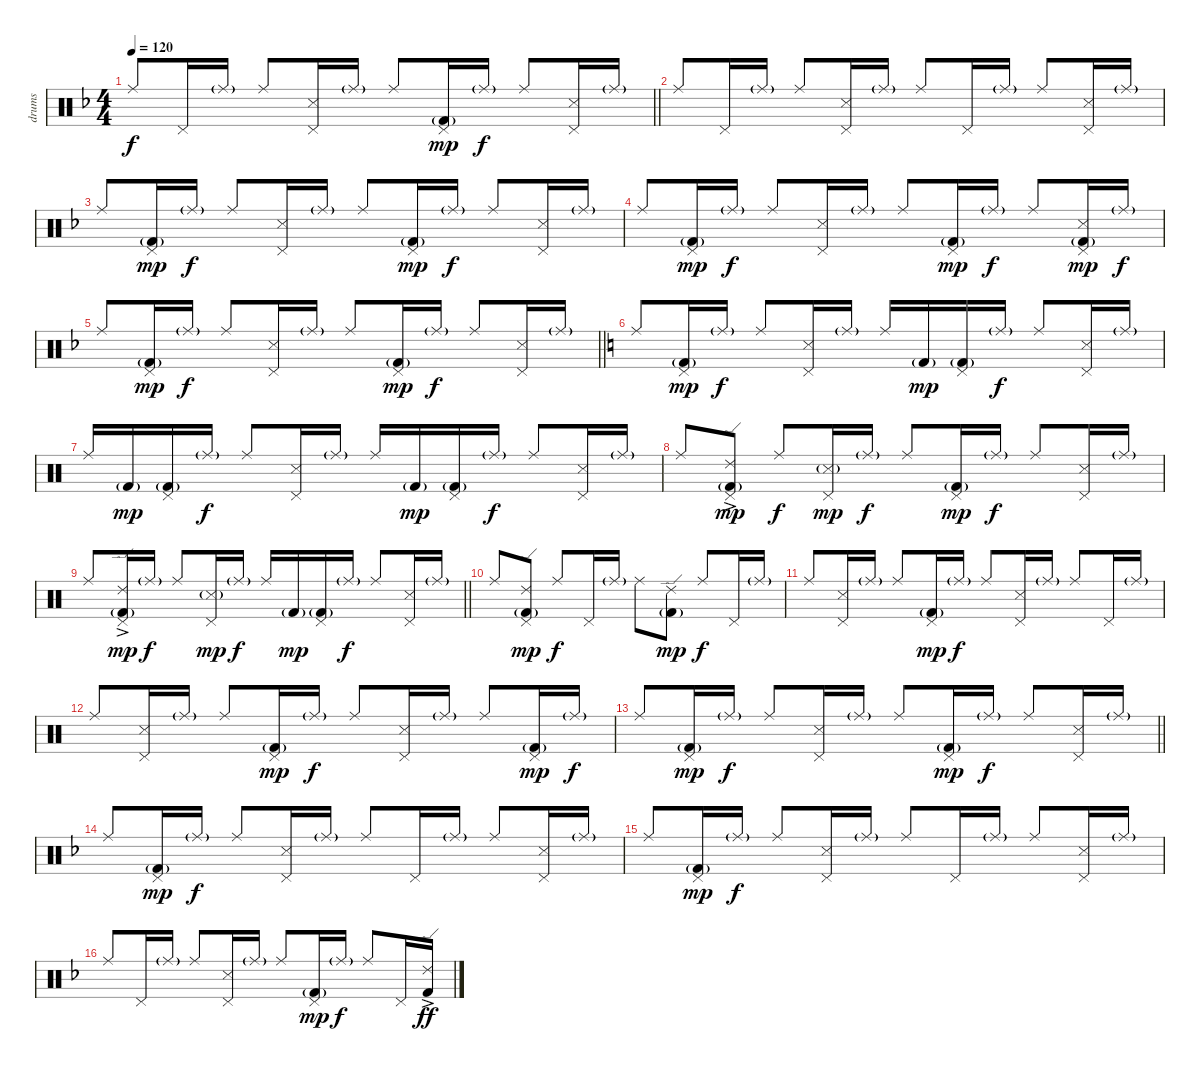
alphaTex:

\track ("drums" "drums") {instrument percussion}
\staff {score}
\articulation defaults
\ts (4 4)
\tempo 120
\clef neutral
\barLineRight lightlight
\ks f "Ride (middle)".8{dy f} "Pedal Hi-Hat (hit)".16 "Ride (middle)"{g}.16 "Ride (middle)".8
("Pedal Hi-Hat (hit)" "Snare (side stick) 3").16 "Ride (middle)"{g}.16 "Ride (middle)".8 ("Pedal Hi-Hat (hit)" "Kick (hit) 2"{g}).16{dy mp} "Ride (middle)"{g}.16{dy f} "Ride (middle)".8 ("Pedal Hi-Hat (hit)" "Snare (side stick) 3").16 "Ride (middle)"{g}.16 |
"Ride (middle)".8 "Pedal Hi-Hat (hit)".16 "Ride (middle)"{g}.16 "Ride (middle)".8 ("Pedal Hi-Hat (hit)" "Snare (side stick) 3").16 "Ride (middle)"{g}.16 "Ride (middle)".8 "Pedal Hi-Hat (hit)".16 "Ride (middle)"{g}.16 "Ride (middle)".8 ("Pedal Hi-Hat (hit)" "Snare (side stick) 3").16 "Ride (middle)"{g}.16 |
"Ride (middle)".8 ("Pedal Hi-Hat (hit)" "Kick (hit) 2"{g}).16{dy mp} "Ride (middle)"{g}.16{dy f} "Ride (middle)".8 ("Pedal Hi-Hat (hit)" "Snare (side stick) 3").16 "Ride (middle)"{g}.16 "Ride (middle)".8 ("Pedal Hi-Hat (hit)" "Kick (hit) 2"{g}).16{dy mp} "Ride (middle)"{g}.16{dy f} "Ride (middle)".8 ("Pedal Hi-Hat (hit)" "Snare (side stick) 3").16 "Ride (middle)"{g}.16 |
"Ride (middle)".8 ("Pedal Hi-Hat (hit)" "Kick (hit) 2"{g}).16{dy mp} "Ride (middle)"{g}.16{dy f} "Ride (middle)".8 ("Pedal Hi-Hat (hit)" "Snare (side stick) 3").16 "Ride (middle)"{g}.16 "Ride (middle)".8 ("Pedal Hi-Hat (hit)" "Kick (hit) 2"{g}).16{dy mp} "Ride (middle)"{g}.16{dy f} "Ride (middle)".8 ("Pedal Hi-Hat (hit)" "Snare (side stick) 3" "Kick (hit) 2"{g}).16{dy mp} "Ride (middle)"{g}.16{dy f} |
\barLineRight lightlight "Ride (middle)".8
("Pedal Hi-Hat (hit)" "Kick (hit) 2"{g}).16{dy mp} "Ride (middle)"{g}.16{dy f} "Ride (middle)".8 ("Pedal Hi-Hat (hit)" "Snare (side stick) 3").16 "Ride (middle)"{g}.16 "Ride (middle)".8 ("Pedal Hi-Hat (hit)" "Kick (hit) 2"{g}).16{dy mp} "Ride (middle)"{g}.16{dy f} "Ride (middle)".8 ("Pedal Hi-Hat (hit)" "Snare (side stick) 3").16 "Ride (middle)"{g}.16 |
\ks c "Ride (middle)".8
("Pedal Hi-Hat (hit)" "Kick (hit) 2"{g}).16{dy mp} "Ride (middle)"{g}.16{dy f} "Ride (middle)".8 ("Pedal Hi-Hat (hit)" "Snare (side stick) 3").16 "Ride (middle)"{g}.16 "Ride (middle)".16 "Kick (hit) 2"{g}.16{dy mp} ("Pedal Hi-Hat (hit)" "Kick (hit) 2"{g}).16 "Ride (middle)"{g}.16{dy f} "Ride (middle)".8 ("Pedal Hi-Hat (hit)" "Snare (side stick) 3").16 "Ride (middle)"{g}.16 |
"Ride (middle)".16 "Kick (hit) 2"{g}.16{dy mp} ("Pedal Hi-Hat (hit)" "Kick (hit) 2"{g}).16 "Ride (middle)"{g}.16{dy f} "Ride (middle)".8 ("Pedal Hi-Hat (hit)" "Snare (side stick) 3").16 "Ride (middle)"{g}.16 "Ride (middle)".16 "Kick (hit) 2"{g}.16{dy mp} ("Pedal Hi-Hat (hit)" "Kick (hit) 2"{g}).16 "Ride (middle)"{g}.16{dy f} "Ride (middle)".8 ("Pedal Hi-Hat (hit)" "Snare (side stick) 3").16 "Ride (middle)"{g}.16 |
"Ride (middle)".8 ("Ride (edge) 2"{ac} "Pedal Hi-Hat (hit)" "Kick (hit) 2"{g}).8{dy mp} "Ride (middle)".8{dy f} ("Pedal Hi-Hat (hit)" "Snare (side stick) 3"{g}).16{dy mp} "Ride (middle)"{g}.16{dy f} "Ride (middle)".8 ("Pedal Hi-Hat (hit)" "Kick (hit) 2"{g}).16{dy mp} "Ride (middle)"{g}.16{dy f} "Ride (middle)".8 ("Pedal Hi-Hat (hit)" "Snare (side stick) 3").16 "Ride (middle)"{g}.16 |
\barLineRight lightlight "Ride (middle)".8
("Ride (edge) 2"{ac} "Pedal Hi-Hat (hit)" "Kick (hit) 2"{g}).16{dy mp} "Ride (middle)"{g}.16{dy f} "Ride (middle)".8 ("Pedal Hi-Hat (hit)" "Snare (side stick) 3"{g}).16{dy mp} "Ride (middle)"{g}.16{dy f} "Ride (middle)".16 "Kick (hit) 2"{g}.16{dy mp} ("Pedal Hi-Hat (hit)" "Kick (hit) 2"{g}).16 "Ride (middle)"{g}.16{dy f} "Ride (middle)".8 ("Pedal Hi-Hat (hit)" "Snare (side stick) 3").16 "Ride (middle)"{g}.16 |
"Ride (middle)".8 ("Ride (edge) 2" "Pedal Hi-Hat (hit)" "Kick (hit) 2"{g}).8{dy mp} "Ride (middle)".8{dy f} "Pedal Hi-Hat (hit)".16 "Ride (middle)"{g}.16 "Ride (middle)".8 ("Ride (edge) 2" "Kick (hit) 2"{g}).8{dy mp} "Ride (middle)".8{dy f} "Pedal Hi-Hat (hit)".16 "Ride (middle)"{g}.16 |
"Ride (middle)".8 ("Pedal Hi-Hat (hit)" "Snare (side stick) 3").16 "Ride (middle)"{g}.16 "Ride (middle)".8 ("Pedal Hi-Hat (hit)" "Kick (hit) 2"{g}).16{dy mp} "Ride (middle)"{g}.16{dy f} "Ride (middle)".8 ("Pedal Hi-Hat (hit)" "Snare (side stick) 3").16 "Ride (middle)"{g}.16 "Ride (middle)".8 "Pedal Hi-Hat (hit)".16 "Ride (middle)"{g}.16 |
"Ride (middle)".8 ("Pedal Hi-Hat (hit)" "Snare (side stick) 3").16 "Ride (middle)"{g}.16 "Ride (middle)".8 ("Pedal Hi-Hat (hit)" "Kick (hit) 2"{g}).16{dy mp} "Ride (middle)"{g}.16{dy f} "Ride (middle)".8 ("Pedal Hi-Hat (hit)" "Snare (side stick) 3").16 "Ride (middle)"{g}.16 "Ride (middle)".8 ("Pedal Hi-Hat (hit)" "Kick (hit) 2"{g}).16{dy mp} "Ride (middle)"{g}.16{dy f} |
\barLineRight lightlight "Ride (middle)".8
("Pedal Hi-Hat (hit)" "Kick (hit) 2"{g}).16{dy mp} "Ride (middle)"{g}.16{dy f} "Ride (middle)".8 ("Pedal Hi-Hat (hit)" "Snare (side stick) 3").16 "Ride (middle)"{g}.16 "Ride (middle)".8 ("Pedal Hi-Hat (hit)" "Kick (hit) 2"{g}).16{dy mp} "Ride (middle)"{g}.16{dy f} "Ride (middle)".8 ("Pedal Hi-Hat (hit)" "Snare (side stick) 3").16 "Ride (middle)"{g}.16 |
\ks f "Ride (middle)".8
("Pedal Hi-Hat (hit)" "Kick (hit) 2"{g}).16{dy mp} "Ride (middle)"{g}.16{dy f} "Ride (middle)".8 ("Pedal Hi-Hat (hit)" "Snare (side stick) 3").16 "Ride (middle)"{g}.16 "Ride (middle)".8 "Pedal Hi-Hat (hit)".16 "Ride (middle)"{g}.16 "Ride (middle)".8 ("Pedal Hi-Hat (hit)" "Snare (side stick) 3").16 "Ride (middle)"{g}.16 |
"Ride (middle)".8 ("Pedal Hi-Hat (hit)" "Kick (hit) 2"{g}).16{dy mp} "Ride (middle)"{g}.16{dy f} "Ride (middle)".8 ("Pedal Hi-Hat (hit)" "Snare (side stick) 3").16 "Ride (middle)"{g}.16 "Ride (middle)".8 "Pedal Hi-Hat (hit)".16 "Ride (middle)"{g}.16 "Ride (middle)".8 ("Pedal Hi-Hat (hit)" "Snare (side stick) 3").16 "Ride (middle)"{g}.16 |
"Ride (middle)".8 "Pedal Hi-Hat (hit)".16 "Ride (middle)"{g}.16 "Ride (middle)".8 ("Pedal Hi-Hat (hit)" "Snare (side stick) 3").16 "Ride (middle)"{g}.16 "Ride (middle)".8 ("Pedal Hi-Hat (hit)" "Kick (hit) 2"{g}).16{dy mp} "Ride (middle)"{g}.16{dy f} "Ride (middle)".8 "Pedal Hi-Hat (hit)".16 ("Ride (edge) 2"{ac} "Kick (hit) 2").16{dy ff}
